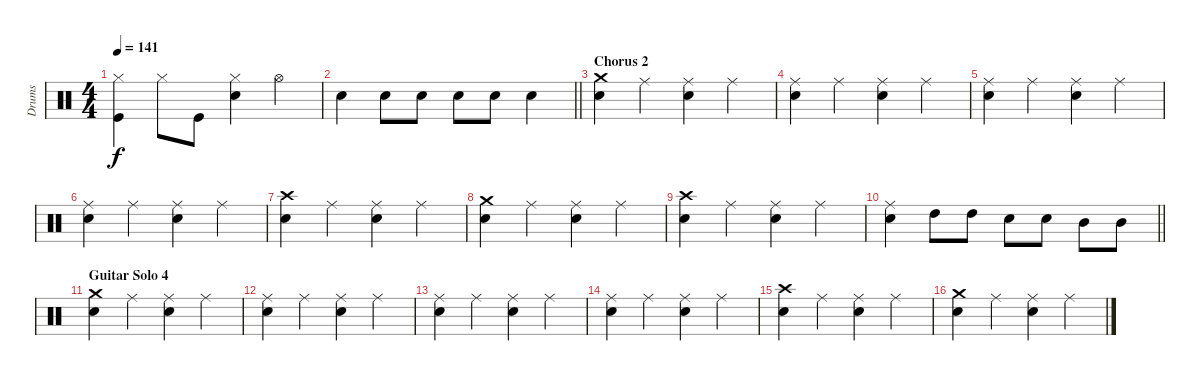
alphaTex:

\track ("Drums" "Drums") {instrument percussion}
\staff {score}
\articulation defaults
\ts (4 4)
\tempo 141
\clef neutral
\ks c
("Hi-Hat (closed)" "Kick (hit)").4{dy f} "Hi-Hat (closed)".8 "Kick (hit)".8 ("Hi-Hat (closed)" "Snare (hit) 2").4 "Hi-Hat (open)".4 |
\barLineRight lightlight "Snare (hit) 2".4 "Snare (hit) 2".8 "Snare (hit) 2".8 "Snare (hit) 2".8 "Snare (hit) 2".8 "Snare (hit) 2".4
|
\section ("" "Chorus 2")
("Crash medium (hit)" "Snare (hit) 2").4 "Ride (middle)".4 ("Ride (middle)" "Snare (hit) 2").4 "Ride (middle)".4 |
("Ride (middle)" "Snare (hit) 2").4 "Ride (middle)".4 ("Ride (middle)" "Snare (hit) 2").4 "Ride (middle)".4 |
("Ride (middle)" "Snare (hit) 2").4 "Ride (middle)".4 ("Ride (middle)" "Snare (hit) 2").4 "Ride (middle)".4 |
("Ride (middle)" "Snare (hit) 2").4 "Ride (middle)".4 ("Ride (middle)" "Snare (hit) 2").4 "Ride (middle)".4 |
("Crash high (hit)" "Snare (hit) 2").4 "Ride (middle)".4 ("Ride (middle)" "Snare (hit) 2").4 "Ride (middle)".4 |
("Crash medium (hit)" "Snare (hit) 2").4 "Ride (middle)".4 ("Ride (middle)" "Snare (hit) 2").4 "Ride (middle)".4 |
("Crash high (hit)" "Snare (hit) 2").4 "Ride (middle)".4 ("Ride (middle)" "Snare (hit) 2").4 "Ride (middle)".4 |
\barLineRight lightlight
("Ride (middle)" "Snare (hit) 2").4 "High Tom (hit)".8 "High Tom (hit)".8 "Snare (hit) 2".8 "Snare (hit) 2".8 "Mid Tom (hit)".8 "Mid Tom (hit)".8 |
\section ("" "Guitar Solo 4")
("Crash medium (hit)" "Snare (hit) 2").4 "Ride (middle)".4 ("Ride (middle)" "Snare (hit) 2").4 "Ride (middle)".4 |
("Ride (middle)" "Snare (hit) 2").4 "Ride (middle)".4 ("Ride (middle)" "Snare (hit) 2").4 "Ride (middle)".4 |
("Ride (middle)" "Snare (hit) 2").4 "Ride (middle)".4 ("Ride (middle)" "Snare (hit) 2").4 "Ride (middle)".4 |
("Ride (middle)" "Snare (hit) 2").4 "Ride (middle)".4 ("Ride (middle)" "Snare (hit) 2").4 "Ride (middle)".4 |
("Crash high (hit)" "Snare (hit) 2").4 "Ride (middle)".4 ("Ride (middle)" "Snare (hit) 2").4 "Ride (middle)".4 |
("Crash medium (hit)" "Snare (hit) 2").4 "Ride (middle)".4 ("Ride (middle)" "Snare (hit) 2").4 "Ride (middle)".4
